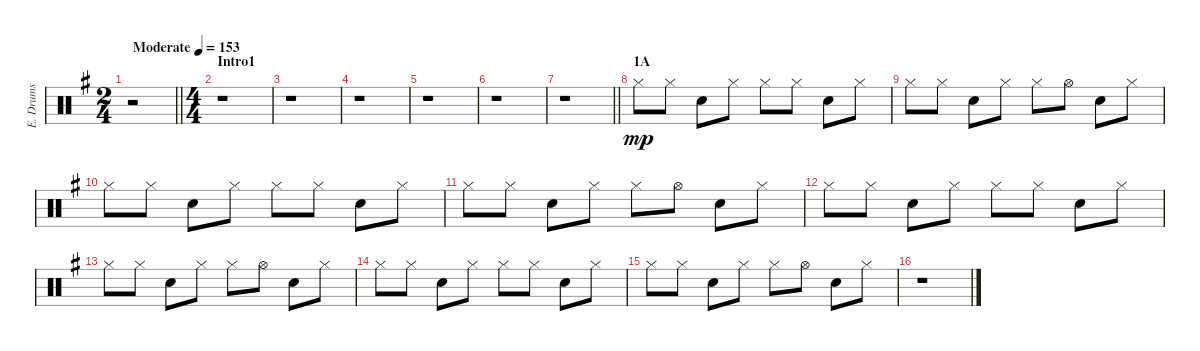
\track ("E. Drums" "E. Drums") {instrument percussion}
\staff {score}
\articulation defaults
\ts (2 4)
\tempo (153 "Moderate")
\clef neutral
\barLineRight lightlight
\ks g
r.2{dy mp} |
\ts (4 4)
\section ("" "Intro1")
r.1 |
r.1 |
r.1 |
r.1 |
r.1 |
\barLineRight lightlight
r.1 |
\section ("" "1A")
"Hi-Hat (closed)".8 "Hi-Hat (closed)".8 "Electric Snare (hit)".8 "Hi-Hat (closed)".8 "Hi-Hat (closed)".8 "Hi-Hat (closed)".8 "Electric Snare (hit)".8 "Hi-Hat (closed)".8 |
"Hi-Hat (closed)".8 "Hi-Hat (closed)".8 "Electric Snare (hit)".8 "Hi-Hat (closed)".8 "Hi-Hat (closed)".8 "Hi-Hat (open)".8 "Electric Snare (hit)".8 "Hi-Hat (closed)".8 |
"Hi-Hat (closed)".8 "Hi-Hat (closed)".8 "Electric Snare (hit)".8 "Hi-Hat (closed)".8 "Hi-Hat (closed)".8 "Hi-Hat (closed)".8 "Electric Snare (hit)".8 "Hi-Hat (closed)".8 |
"Hi-Hat (closed)".8 "Hi-Hat (closed)".8 "Electric Snare (hit)".8 "Hi-Hat (closed)".8 "Hi-Hat (closed)".8 "Hi-Hat (open)".8 "Electric Snare (hit)".8 "Hi-Hat (closed)".8 |
"Hi-Hat (closed)".8 "Hi-Hat (closed)".8 "Electric Snare (hit)".8 "Hi-Hat (closed)".8 "Hi-Hat (closed)".8 "Hi-Hat (closed)".8 "Electric Snare (hit)".8 "Hi-Hat (closed)".8 |
"Hi-Hat (closed)".8 "Hi-Hat (closed)".8 "Electric Snare (hit)".8 "Hi-Hat (closed)".8 "Hi-Hat (closed)".8 "Hi-Hat (open)".8 "Electric Snare (hit)".8 "Hi-Hat (closed)".8 |
"Hi-Hat (closed)".8 "Hi-Hat (closed)".8 "Electric Snare (hit)".8 "Hi-Hat (closed)".8 "Hi-Hat (closed)".8 "Hi-Hat (closed)".8 "Electric Snare (hit)".8 "Hi-Hat (closed)".8 |
"Hi-Hat (closed)".8 "Hi-Hat (closed)".8 "Electric Snare (hit)".8 "Hi-Hat (closed)".8 "Hi-Hat (closed)".8 "Hi-Hat (open)".8 "Electric Snare (hit)".8 "Hi-Hat (closed)".8 |
r.1
